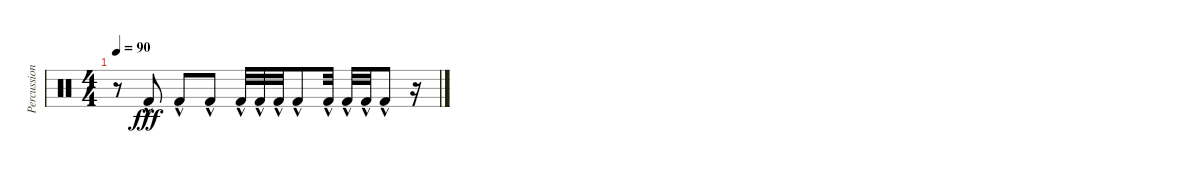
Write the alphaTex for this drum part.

\track ("Percussion" "Percussion") {instrument percussion}
\staff {score}
\articulation defaults
\ts (4 4)
\tempo 90
\clef neutral
\ks c
r.8{dy f} "Kick (hit) 2"{hac}.8{dy fff} "Kick (hit) 2"{hac}.8 "Kick (hit) 2"{hac}.8 "Kick (hit) 2"{hac}.32 "Kick (hit) 2"{hac}.32 "Kick (hit) 2"{hac}.32 "Kick (hit) 2"{hac}.8 "Kick (hit) 2"{hac}.32 "Kick (hit) 2"{hac}.32 "Kick (hit) 2"{hac}.32 "Kick (hit) 2"{hac}.8 r.16
